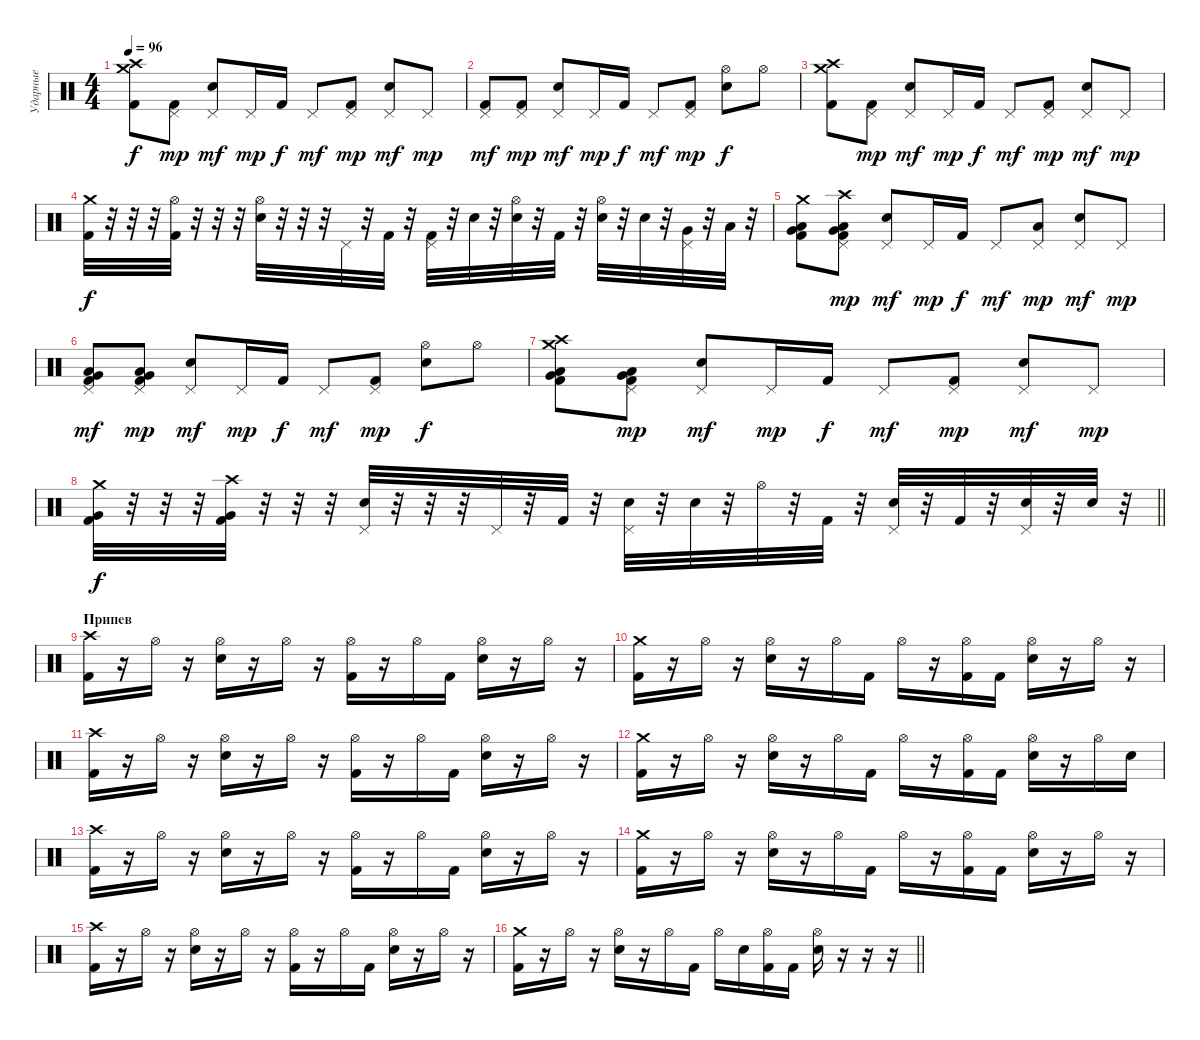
\track ("Ударные" "Ударные") {instrument percussion}
\staff {score}
\articulation defaults
\ts (4 4)
\tempo 96
\clef neutral
\ks c
("Crash high (hit)" "Crash medium (hit)" "Kick (hit) 2").8{dy f} ("Kick (hit) 2" "Pedal Hi-Hat (hit)").8{dy mp} ("Snare (hit) 2" "Pedal Hi-Hat (hit)").8{dy mf} "Pedal Hi-Hat (hit)".16{dy mp} "Kick (hit) 2".16{dy f} "Pedal Hi-Hat (hit)".8{dy mf} ("Kick (hit) 2" "Pedal Hi-Hat (hit)").8{dy mp} ("Snare (hit) 2" "Pedal Hi-Hat (hit)").8{dy mf} "Pedal Hi-Hat (hit)".8{dy mp} |
("Kick (hit) 2" "Pedal Hi-Hat (hit)").8{dy mf} ("Kick (hit) 2" "Pedal Hi-Hat (hit)").8{dy mp} ("Snare (hit) 2" "Pedal Hi-Hat (hit)").8{dy mf} "Pedal Hi-Hat (hit)".16{dy mp} "Kick (hit) 2".16{dy f} "Pedal Hi-Hat (hit)".8{dy mf} ("Kick (hit) 2" "Pedal Hi-Hat (hit)").8{dy mp} ("Snare (hit) 2" "Hi-Hat (open)").8{dy f} "Hi-Hat (open)".8 |
("Crash high (hit)" "Crash medium (hit)" "Kick (hit) 2").8 ("Kick (hit) 2" "Pedal Hi-Hat (hit)").8{dy mp} ("Snare (hit) 2" "Pedal Hi-Hat (hit)").8{dy mf} "Pedal Hi-Hat (hit)".16{dy mp} "Kick (hit) 2".16{dy f} "Pedal Hi-Hat (hit)".8{dy mf} ("Kick (hit) 2" "Pedal Hi-Hat (hit)").8{dy mp} ("Snare (hit) 2" "Pedal Hi-Hat (hit)").8{dy mf} "Pedal Hi-Hat (hit)".8{dy mp} |
("Kick (hit) 2" "Crash medium (hit)").32{dy f} r.32 r.32 r.32 ("Kick (hit) 2" "Hi-Hat (open)").32 r.32 r.32 r.32 ("Electric Snare (hit)" "Hi-Hat (open)").32 r.32 r.32 r.32 "Pedal Hi-Hat (hit)".32 r.32 "Kick (hit) 2".32 r.32 ("Kick (hit) 2" "Pedal Hi-Hat (hit)").32 r.32 "Electric Snare (hit)".32 r.32 ("Electric Snare (hit)" "Hi-Hat (open)").32 r.32 "Kick (hit) 2".32 r.32 ("Electric Snare (hit)" "Hi-Hat (open)").32 r.32 "Electric Snare (hit)".32 r.32 ("Very Low Tom (hit)" "Pedal Hi-Hat (hit)").32 r.32 "Low Tom (hit)".32 r.32 |
("Crash medium (hit)" "Very Low Tom (hit)" "Low Tom (hit)" "Kick (hit) 2").8 ("Crash high (hit)" "Very Low Tom (hit)" "Low Tom (hit)" "Kick (hit) 2" "Pedal Hi-Hat (hit)").8{dy mp} ("Snare (hit) 2" "Pedal Hi-Hat (hit)").8{dy mf} "Pedal Hi-Hat (hit)".16{dy mp} "Kick (hit) 2".16{dy f} "Pedal Hi-Hat (hit)".8{dy mf} ("Low Tom (hit)" "Pedal Hi-Hat (hit)").8{dy mp} ("Snare (hit) 2" "Pedal Hi-Hat (hit)").8{dy mf} "Pedal Hi-Hat (hit)".8{dy mp} |
("Very Low Tom (hit)" "Low Tom (hit)" "Kick (hit) 2" "Pedal Hi-Hat (hit)").8{dy mf} ("Very Low Tom (hit)" "Low Tom (hit)" "Kick (hit) 2" "Pedal Hi-Hat (hit)").8{dy mp} ("Snare (hit) 2" "Pedal Hi-Hat (hit)").8{dy mf} "Pedal Hi-Hat (hit)".16{dy mp} "Kick (hit) 2".16{dy f} "Pedal Hi-Hat (hit)".8{dy mf} ("Kick (hit) 2" "Pedal Hi-Hat (hit)").8{dy mp} ("Snare (hit) 2" "Hi-Hat (open)").8{dy f} "Hi-Hat (open)".8 |
("Crash high (hit)" "Crash medium (hit)" "Very Low Tom (hit)" "Low Tom (hit)" "Kick (hit) 2").8 ("Very Low Tom (hit)" "Low Tom (hit)" "Kick (hit) 2" "Pedal Hi-Hat (hit)").8{dy mp} ("Snare (hit) 2" "Pedal Hi-Hat (hit)").8{dy mf} "Pedal Hi-Hat (hit)".16{dy mp} "Kick (hit) 2".16{dy f} "Pedal Hi-Hat (hit)".8{dy mf} ("Kick (hit) 2" "Pedal Hi-Hat (hit)").8{dy mp} ("Snare (hit) 2" "Pedal Hi-Hat (hit)").8{dy mf} "Pedal Hi-Hat (hit)".8{dy mp} |
\barLineRight lightlight
("Kick (hit) 2" "Crash medium (hit)" "Very Low Tom (hit)").32{dy f} r.32 r.32 r.32 ("Kick (hit) 2" "Crash high (hit)" "Very Low Tom (hit)").32 r.32 r.32 r.32 ("Electric Snare (hit)" "Pedal Hi-Hat (hit)").32 r.32 r.32 r.32 "Pedal Hi-Hat (hit)".32 r.32 "Kick (hit) 2".32 r.32 ("Electric Snare (hit)" "Pedal Hi-Hat (hit)").32 r.32 "Electric Snare (hit)".32 r.32 "Hi-Hat (open)".32 r.32 "Kick (hit) 2".32 r.32 ("Electric Snare (hit)" "Pedal Hi-Hat (hit)").32 r.32 "Kick (hit) 2".32 r.32 ("Electric Snare (hit)" "Pedal Hi-Hat (hit)").32 r.32 "Electric Snare (hit)".32 r.32 |
\section ("" "Припев")
("Crash high (hit)" "Kick (hit) 2").16 r.16 "Hi-Hat (open)".16 r.16 ("Hi-Hat (open)" "Electric Snare (hit)").16 r.16 "Hi-Hat (open)".16 r.16 ("Hi-Hat (open)" "Kick (hit) 2").16 r.16 "Hi-Hat (open)".16 "Kick (hit) 2".16 ("Hi-Hat (open)" "Electric Snare (hit)").16 r.16 "Hi-Hat (open)".16 r.16 |
("Crash medium (hit)" "Kick (hit) 2").16 r.16 "Hi-Hat (open)".16 r.16 ("Hi-Hat (open)" "Electric Snare (hit)").16 r.16 "Hi-Hat (open)".16 "Kick (hit) 2".16 "Hi-Hat (open)".16 r.16 ("Hi-Hat (open)" "Kick (hit) 2").16 "Kick (hit) 2".16 ("Hi-Hat (open)" "Electric Snare (hit)").16 r.16 "Hi-Hat (open)".16 r.16 |
("Crash high (hit)" "Kick (hit) 2").16 r.16 "Hi-Hat (open)".16 r.16 ("Hi-Hat (open)" "Electric Snare (hit)").16 r.16 "Hi-Hat (open)".16 r.16 ("Hi-Hat (open)" "Kick (hit) 2").16 r.16 "Hi-Hat (open)".16 "Kick (hit) 2".16 ("Hi-Hat (open)" "Electric Snare (hit)").16 r.16 "Hi-Hat (open)".16 r.16 |
("Crash medium (hit)" "Kick (hit) 2").16 r.16 "Hi-Hat (open)".16 r.16 ("Hi-Hat (open)" "Electric Snare (hit)").16 r.16 "Hi-Hat (open)".16 "Kick (hit) 2".16 "Hi-Hat (open)".16 r.16 ("Hi-Hat (open)" "Kick (hit) 2").16 "Kick (hit) 2".16 ("Hi-Hat (open)" "Electric Snare (hit)").16 r.16 "Hi-Hat (open)".16 "Electric Snare (hit)".16 |
("Crash high (hit)" "Kick (hit) 2").16 r.16 "Hi-Hat (open)".16 r.16 ("Hi-Hat (open)" "Electric Snare (hit)").16 r.16 "Hi-Hat (open)".16 r.16 ("Hi-Hat (open)" "Kick (hit) 2").16 r.16 "Hi-Hat (open)".16 "Kick (hit) 2".16 ("Hi-Hat (open)" "Electric Snare (hit)").16 r.16 "Hi-Hat (open)".16 r.16 |
("Crash medium (hit)" "Kick (hit) 2").16 r.16 "Hi-Hat (open)".16 r.16 ("Hi-Hat (open)" "Electric Snare (hit)").16 r.16 "Hi-Hat (open)".16 "Kick (hit) 2".16 "Hi-Hat (open)".16 r.16 ("Hi-Hat (open)" "Kick (hit) 2").16 "Kick (hit) 2".16 ("Hi-Hat (open)" "Electric Snare (hit)").16 r.16 "Hi-Hat (open)".16 r.16 |
("Crash high (hit)" "Kick (hit) 2").16 r.16 "Hi-Hat (open)".16 r.16 ("Hi-Hat (open)" "Electric Snare (hit)").16 r.16 "Hi-Hat (open)".16 r.16 ("Hi-Hat (open)" "Kick (hit) 2").16 r.16 "Hi-Hat (open)".16 "Kick (hit) 2".16 ("Hi-Hat (open)" "Electric Snare (hit)").16 r.16 "Hi-Hat (open)".16 r.16 |
\barLineRight lightlight
("Crash medium (hit)" "Kick (hit) 2").16 r.16 "Hi-Hat (open)".16 r.16 ("Hi-Hat (open)" "Electric Snare (hit)").16 r.16 "Hi-Hat (open)".16 "Kick (hit) 2".16 "Hi-Hat (open)".16 "Electric Snare (hit)".16 ("Hi-Hat (open)" "Kick (hit) 2").16 "Kick (hit) 2".16 ("Hi-Hat (open)" "Electric Snare (hit)").16 r.16 r.16 r.16
